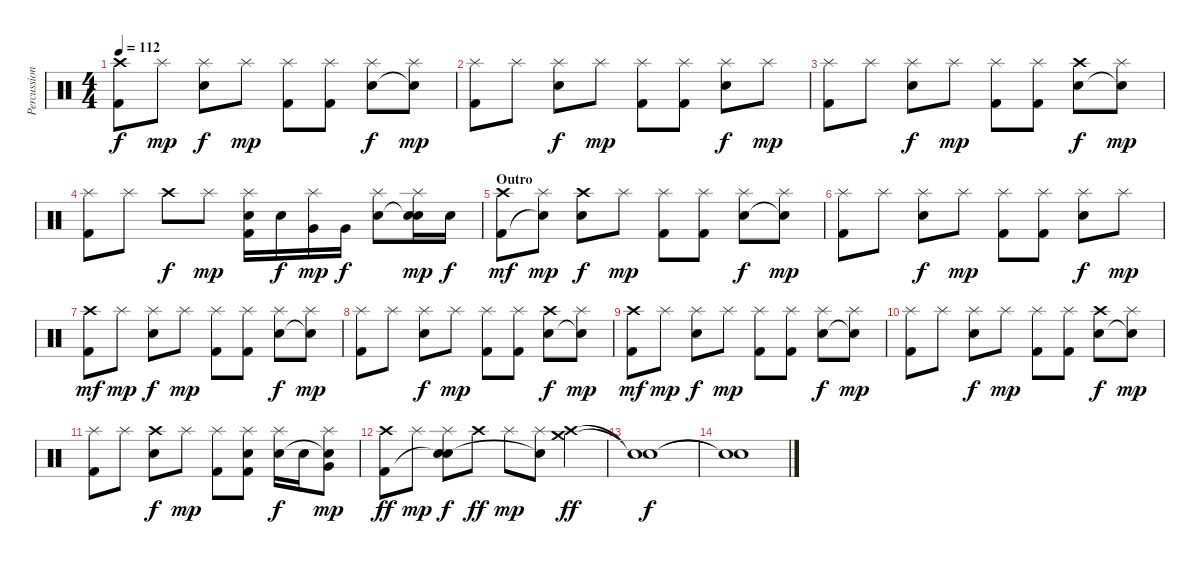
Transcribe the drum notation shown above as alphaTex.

\track ("Percussion" "Percussion") {instrument percussion}
\staff {score}
\articulation defaults
\ts (4 4)
\tempo 112
\clef neutral
\ks c
("Crash high (hit)" "Kick (hit) 2").8{dy f} "Splash (hit)".8{dy mp} ("Splash (hit)" "Electric Snare (hit)").8{dy f} "Splash (hit)".8{dy mp} ("Splash (hit)" "Kick (hit) 2").8 ("Splash (hit)" "Kick (hit) 2").8 ("Splash (hit)" "Electric Snare (hit)").8{dy f} ("Splash (hit)" "Snare (hit)"{t}).8{dy mp} |
("Splash (hit)" "Kick (hit) 2").8 "Splash (hit)".8 ("Splash (hit)" "Electric Snare (hit)").8{dy f} "Splash (hit)".8{dy mp} ("Splash (hit)" "Kick (hit) 2").8 ("Splash (hit)" "Kick (hit) 2").8 ("Splash (hit)" "Electric Snare (hit)").8{dy f} "Splash (hit)".8{dy mp} |
("Splash (hit)" "Kick (hit) 2").8{volume 16} "Splash (hit)".8 ("Splash (hit)" "Electric Snare (hit)").8{dy f} "Splash (hit)".8{dy mp} ("Splash (hit)" "Kick (hit) 2").8 ("Splash (hit)" "Kick (hit) 2").8 ("Crash high (hit)" "Electric Snare (hit)").8{dy f} ("Splash (hit)" "Snare (hit)"{t}).8{dy mp} |
("Splash (hit)" "Kick (hit) 2").8 "Splash (hit)".8 "Crash high (hit)".8{dy f} "Splash (hit)".8{dy mp} ("Splash (hit)" "Snare (hit) 2" "Kick (hit) 2").16 "Snare (hit) 2".16{dy f} ("Splash (hit)" "Very Low Tom (hit)").16{dy mp} "Very Low Tom (hit)".16{dy f} ("Splash (hit)" "Electric Snare (hit)").8 ("Splash (hit)" "Snare (hit)"{t} "Electric Snare (hit)").16{dy mp} "Electric Snare (hit)".16{dy f} |
\section ("" "Outro")
("Crash high (hit)" "Kick (hit) 2").8{dy mf volume 16} ("Splash (hit)" "Snare (hit)"{t}).8{dy mp} ("Crash high (hit)" "Electric Snare (hit)").8{dy f} "Splash (hit)".8{dy mp} ("Splash (hit)" "Kick (hit) 2").8 ("Splash (hit)" "Kick (hit) 2").8 ("Splash (hit)" "Electric Snare (hit)").8{dy f} ("Splash (hit)" "Snare (hit)"{t}).8{dy mp} |
("Splash (hit)" "Kick (hit) 2").8 "Splash (hit)".8 ("Splash (hit)" "Electric Snare (hit)").8{dy f} "Splash (hit)".8{dy mp} ("Splash (hit)" "Kick (hit) 2").8 ("Splash (hit)" "Kick (hit) 2").8 ("Splash (hit)" "Electric Snare (hit)").8{dy f} "Splash (hit)".8{dy mp} |
("Crash high (hit)" "Kick (hit) 2").8{dy mf volume 16} "Splash (hit)".8{dy mp} ("Splash (hit)" "Electric Snare (hit)").8{dy f} "Splash (hit)".8{dy mp} ("Splash (hit)" "Kick (hit) 2").8 ("Splash (hit)" "Kick (hit) 2").8 ("Splash (hit)" "Electric Snare (hit)").8{dy f} ("Splash (hit)" "Snare (hit)"{t}).8{dy mp} |
("Splash (hit)" "Kick (hit) 2").8 "Splash (hit)".8 ("Splash (hit)" "Electric Snare (hit)").8{dy f} "Splash (hit)".8{dy mp} ("Splash (hit)" "Kick (hit) 2").8 ("Splash (hit)" "Kick (hit) 2").8 ("Crash high (hit)" "Electric Snare (hit)").8{dy f} ("Splash (hit)" "Snare (hit)"{t}).8{dy mp} |
("Crash high (hit)" "Kick (hit) 2").8{dy mf volume 16} "Splash (hit)".8{dy mp} ("Splash (hit)" "Electric Snare (hit)").8{dy f} "Splash (hit)".8{dy mp} ("Splash (hit)" "Kick (hit) 2").8 ("Splash (hit)" "Kick (hit) 2").8 ("Splash (hit)" "Electric Snare (hit)").8{dy f} ("Splash (hit)" "Snare (hit)"{t}).8{dy mp} |
("Splash (hit)" "Kick (hit) 2").8 "Splash (hit)".8 ("Splash (hit)" "Electric Snare (hit)").8{dy f} "Splash (hit)".8{dy mp} ("Splash (hit)" "Kick (hit) 2").8 ("Splash (hit)" "Kick (hit) 2").8 ("Crash high (hit)" "Electric Snare (hit)").8{dy f} ("Splash (hit)" "Snare (hit)"{t}).8{dy mp} |
("Splash (hit)" "Kick (hit) 2").8{volume 15} "Splash (hit)".8 ("Crash high (hit)" "Electric Snare (hit)").8{dy f} "Splash (hit)".8{dy mp} ("Splash (hit)" "Kick (hit) 2").8 ("Splash (hit)" "Electric Snare (hit)" "Kick (hit) 2").8 ("Splash (hit)" "Electric Snare (hit)").16{dy f} "Electric Snare (hit)".16 ("Splash (hit)" "Snare (hit)"{t} "Very Low Tom (hit)").8{dy mp} |
("Crash high (hit)" "Kick (hit) 2").8{dy ff volume 13} "Splash (hit)".8{dy mp} ("Splash (hit)" "Snare (hit)"{t} "Electric Snare (hit)").8{dy f} "Crash high (hit)".8{dy ff} "Splash (hit)".8{dy mp} ("Splash (hit)" "Snare (hit)"{t}).8 ("Crash medium (hit)" "Crash high (hit)").4{dy ff} |
("Snare (hit)"{t} "Snare (hit)"{t}).1{dy f} |
("Snare (hit)"{t} "Snare (hit)"{t}).1
